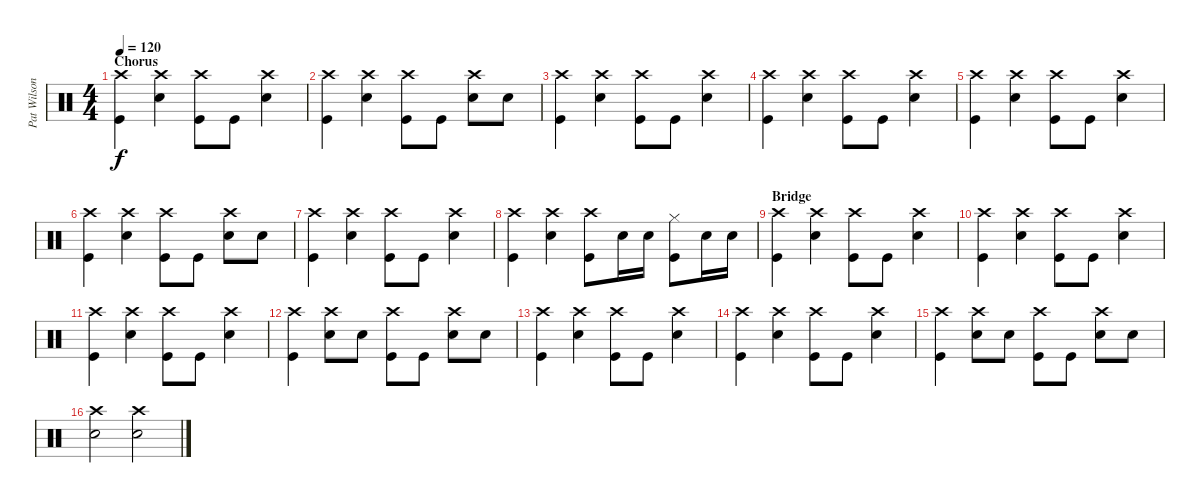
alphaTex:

\track ("Pat Wilson" "Pat Wilson") {instrument percussion}
\staff {score}
\articulation defaults
\ts (4 4)
\section ("" "Chorus")
\tempo 120
\clef neutral
\ks c
("Crash high (hit)" "Kick (hit)").4{dy f} ("Snare (hit) 2" "Crash high (hit)").4 ("Crash high (hit)" "Kick (hit)").8 "Kick (hit)".8 ("Snare (hit) 2" "Crash high (hit)").4 |
("Crash high (hit)" "Kick (hit)").4 ("Snare (hit) 2" "Crash high (hit)").4 ("Crash high (hit)" "Kick (hit)").8 "Kick (hit)".8 ("Snare (hit) 2" "Crash high (hit)").8 "Snare (hit) 2".8 |
("Crash high (hit)" "Kick (hit)").4 ("Snare (hit) 2" "Crash high (hit)").4 ("Crash high (hit)" "Kick (hit)").8 "Kick (hit)".8 ("Snare (hit) 2" "Crash high (hit)").4 |
("Crash high (hit)" "Kick (hit)").4 ("Snare (hit) 2" "Crash high (hit)").4 ("Crash high (hit)" "Kick (hit)").8 "Kick (hit)".8 ("Snare (hit) 2" "Crash high (hit)").4 |
("Crash high (hit)" "Kick (hit)").4 ("Snare (hit) 2" "Crash high (hit)").4 ("Crash high (hit)" "Kick (hit)").8 "Kick (hit)".8 ("Snare (hit) 2" "Crash high (hit)").4 |
("Crash high (hit)" "Kick (hit)").4 ("Snare (hit) 2" "Crash high (hit)").4 ("Crash high (hit)" "Kick (hit)").8 "Kick (hit)".8 ("Snare (hit) 2" "Crash high (hit)").8 "Snare (hit) 2".8 |
("Crash high (hit)" "Kick (hit)").4 ("Snare (hit) 2" "Crash high (hit)").4 ("Crash high (hit)" "Kick (hit)").8 "Kick (hit)".8 ("Snare (hit) 2" "Crash high (hit)").4 |
("Crash high (hit)" "Kick (hit)").4 ("Snare (hit) 2" "Crash high (hit)").4 ("Crash high (hit)" "Kick (hit)").8 "Snare (hit) 2".16 "Snare (hit) 2".16 ("Hi-Hat (closed)" "Kick (hit)").8 "Snare (hit) 2".16 "Snare (hit) 2".16 |
\section ("" "Bridge")
("Crash high (hit)" "Kick (hit)").4 ("Snare (hit) 2" "Crash high (hit)").4 ("Crash high (hit)" "Kick (hit)").8 "Kick (hit)".8 ("Snare (hit) 2" "Crash high (hit)").4 |
("Crash high (hit)" "Kick (hit)").4 ("Snare (hit) 2" "Crash high (hit)").4 ("Crash high (hit)" "Kick (hit)").8 "Kick (hit)".8 ("Snare (hit) 2" "Crash high (hit)").4 |
("Crash high (hit)" "Kick (hit)").4 ("Snare (hit) 2" "Crash high (hit)").4 ("Crash high (hit)" "Kick (hit)").8 "Kick (hit)".8 ("Snare (hit) 2" "Crash high (hit)").4 |
("Crash high (hit)" "Kick (hit)").4 ("Snare (hit) 2" "Crash high (hit)").8 "Snare (hit) 2".8 ("Crash high (hit)" "Kick (hit)").8 "Kick (hit)".8 ("Snare (hit) 2" "Crash high (hit)").8 "Snare (hit) 2".8 |
("Crash high (hit)" "Kick (hit)").4 ("Snare (hit) 2" "Crash high (hit)").4 ("Crash high (hit)" "Kick (hit)").8 "Kick (hit)".8 ("Snare (hit) 2" "Crash high (hit)").4 |
("Crash high (hit)" "Kick (hit)").4 ("Snare (hit) 2" "Crash high (hit)").4 ("Crash high (hit)" "Kick (hit)").8 "Kick (hit)".8 ("Snare (hit) 2" "Crash high (hit)").4 |
("Crash high (hit)" "Kick (hit)").4 ("Snare (hit) 2" "Crash high (hit)").8 "Snare (hit) 2".8 ("Crash high (hit)" "Kick (hit)").8 "Kick (hit)".8 ("Snare (hit) 2" "Crash high (hit)").8 "Snare (hit) 2".8 |
("Snare (hit) 2" "Crash high (hit)").2 ("Snare (hit) 2" "Crash high (hit)").2
